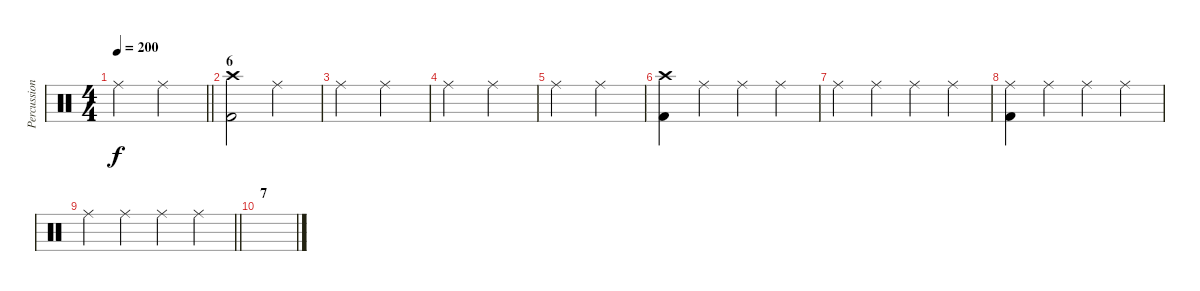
\track ("Percussion" "Percussion") {instrument percussion}
\staff {score}
\articulation defaults
\ts (4 4)
\tempo 200
\clef neutral
\barLineRight lightlight
\ks c "Ride (middle)".2{dy f} "Ride (middle)".2
|
\section ("" "6")
("Crash high (hit)" "Kick (hit) 2").2 "Ride (middle)".2 |
"Ride (middle)".2 "Ride (middle)".2 |
"Ride (middle)".2 "Ride (middle)".2 |
"Ride (middle)".2 "Ride (middle)".2 |
("Crash high (hit)" "Kick (hit) 2").4 "Ride (middle)".4 "Ride (middle)".4 "Ride (middle)".4 |
"Ride (middle)".4 "Ride (middle)".4 "Ride (middle)".4 "Ride (middle)".4 |
("Ride (middle)" "Kick (hit) 2").4 "Ride (middle)".4 "Ride (middle)".4 "Ride (middle)".4 |
\barLineRight lightlight "Ride (middle)".4 "Ride (middle)".4 "Ride (middle)".4 "Ride (middle)".4
|
\section ("" "7")
